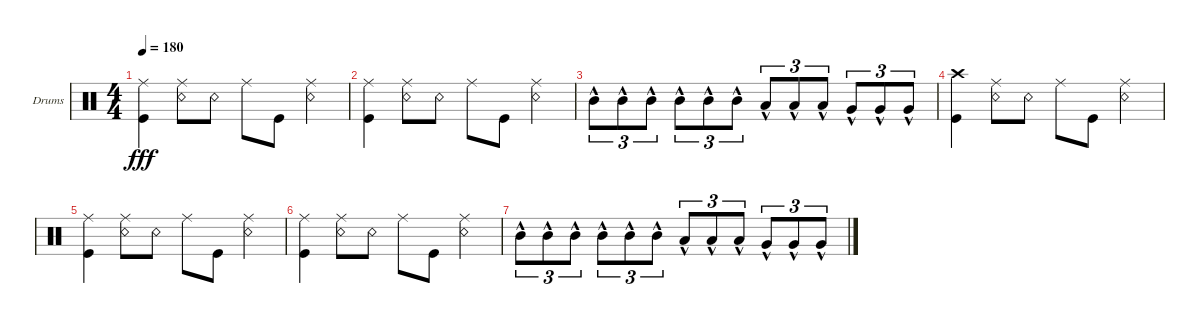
\defaultSystemsLayout 4
\bracketExtendMode groupsimilarinstruments
\firstSystemTrackNameOrientation horizontal
\otherSystemsTrackNameOrientation horizontal
\track ("Drumkit" "Drums") {instrument percussion}
\staff {score}
\articulation defaults
\ts (4 4)
\tempo 180
\clef neutral
\ks c
("Kick (hit)" "Ride (middle)").4{dy fff} ("Snare (rim shot)" "Ride (middle)").8 "Snare (rim shot)".8 "Ride (middle)".8 "Kick (hit)".8 ("Snare (rim shot)" "Ride (middle)").4 |
("Kick (hit)" "Ride (middle)").4 ("Snare (rim shot)" "Ride (middle)").8 "Snare (rim shot)".8 "Ride (middle)".8 "Kick (hit)".8 ("Snare (rim shot)" "Ride (middle)").4 |
"Mid Tom (hit)"{hac}.8{tu (3 2)} "Mid Tom (hit)"{hac}.8{tu (3 2)} "Mid Tom (hit)"{hac}.8{tu (3 2)} "Mid Tom (hit)"{hac}.8{tu (3 2)} "Mid Tom (hit)"{hac}.8{tu (3 2)} "Mid Tom (hit)"{hac}.8{tu (3 2)} "Low Tom (hit)"{hac}.8{tu (3 2)} "Low Tom (hit)"{hac}.8{tu (3 2)} "Low Tom (hit)"{hac}.8{tu (3 2)} "Very Low Tom (hit)"{hac}.8{tu (3 2)} "Very Low Tom (hit)"{hac}.8{tu (3 2)} "Very Low Tom (hit)"{hac}.8{tu (3 2)} |
("Crash high (hit)" "Kick (hit)").4 ("Snare (rim shot)" "Ride (middle)").8 "Snare (rim shot)".8 "Ride (middle)".8 "Kick (hit)".8 ("Snare (rim shot)" "Ride (middle)").4 |
("Kick (hit)" "Ride (middle)").4 ("Snare (rim shot)" "Ride (middle)").8 "Snare (rim shot)".8 "Ride (middle)".8 "Kick (hit)".8 ("Snare (rim shot)" "Ride (middle)").4 |
("Kick (hit)" "Ride (middle)").4 ("Snare (rim shot)" "Ride (middle)").8 "Snare (rim shot)".8 "Ride (middle)".8 "Kick (hit)".8 ("Snare (rim shot)" "Ride (middle)").4 |
"Mid Tom (hit)"{hac}.8{tu (3 2)} "Mid Tom (hit)"{hac}.8{tu (3 2)} "Mid Tom (hit)"{hac}.8{tu (3 2)} "Mid Tom (hit)"{hac}.8{tu (3 2)} "Mid Tom (hit)"{hac}.8{tu (3 2)} "Mid Tom (hit)"{hac}.8{tu (3 2)} "Low Tom (hit)"{hac}.8{tu (3 2)} "Low Tom (hit)"{hac}.8{tu (3 2)} "Low Tom (hit)"{hac}.8{tu (3 2)} "Very Low Tom (hit)"{hac}.8{tu (3 2)} "Very Low Tom (hit)"{hac}.8{tu (3 2)} "Very Low Tom (hit)"{hac}.8{tu (3 2)}
